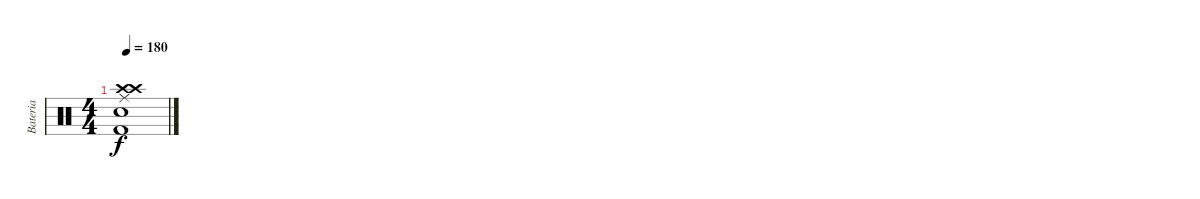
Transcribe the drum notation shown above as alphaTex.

\track ("Bateria" "Bateria") {instrument percussion}
\staff {score}
\articulation defaults
\ts (4 4)
\tempo 180
\clef neutral
\ks c
("Kick (hit) 2" "Ride (middle)" "Crash high (hit)" "Electric Snare (hit)" "Crash high (hit)").1{dy f}
